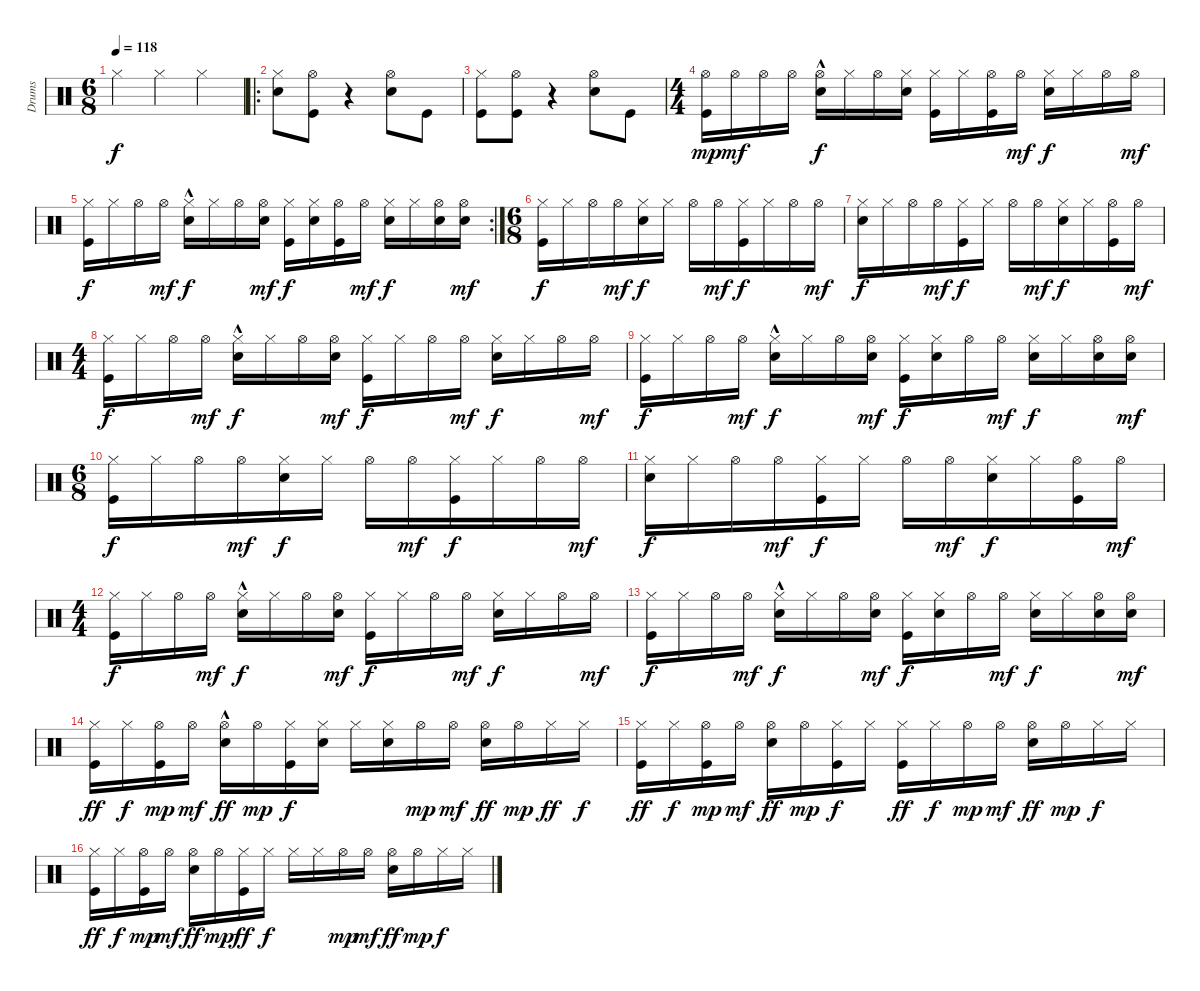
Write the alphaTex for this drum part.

\track ("Drums" "Drums") {instrument percussion}
\staff {score}
\articulation defaults
\ts (6 8)
\tempo 118
\clef neutral
\ks c "Hi-Hat (closed)".4{dy f} "Hi-Hat (closed)".4 "Hi-Hat (closed)".4
|
\ro
("Electric Snare (hit)" "Hi-Hat (closed)").8 ("Hi-Hat (open)" "Kick (hit)").8 r.4 ("Hi-Hat (open)" "Electric Snare (hit)").8 "Kick (hit)".8 |
("Hi-Hat (closed)" "Kick (hit)").8 ("Hi-Hat (open)" "Kick (hit)").8 r.4 ("Electric Snare (hit)" "Hi-Hat (open)").8 "Kick (hit)".8 |
\ts (4 4)
("Kick (hit)" "Hi-Hat (open)").16{dy mp} "Hi-Hat (open)".16{dy mf} "Hi-Hat (open)".16 "Hi-Hat (open)".16 ("Electric Snare (hit)"{hac} "Hi-Hat (open)").16{dy f} "Hi-Hat (closed)".16 "Hi-Hat (open)".16 ("Electric Snare (hit)" "Hi-Hat (closed)").16 ("Hi-Hat (closed)" "Kick (hit)").16 "Hi-Hat (closed)".16 ("Hi-Hat (open)" "Kick (hit)").16 "Hi-Hat (open)".16{dy mf} ("Electric Snare (hit)" "Hi-Hat (closed)").16{dy f} "Hi-Hat (closed)".16 "Hi-Hat (open)".16 "Hi-Hat (open)".16{dy mf} |
\rc 2
("Hi-Hat (closed)" "Kick (hit)").16{dy f} "Hi-Hat (closed)".16 "Hi-Hat (open)".16 "Hi-Hat (open)".16{dy mf} ("Hi-Hat (closed)" "Electric Snare (hit)"{hac}).16{dy f} "Hi-Hat (closed)".16 "Hi-Hat (open)".16 ("Electric Snare (hit)" "Hi-Hat (open)").16{dy mf} ("Hi-Hat (closed)" "Kick (hit)").16{dy f} ("Electric Snare (hit)" "Hi-Hat (closed)").16 ("Hi-Hat (open)" "Kick (hit)").16 "Hi-Hat (open)".16{dy mf} ("Electric Snare (hit)" "Hi-Hat (closed)").16{dy f} "Hi-Hat (closed)".16 ("Hi-Hat (open)" "Electric Snare (hit)").16 ("Hi-Hat (open)" "Electric Snare (hit)").16{dy mf} |
\ts (6 8)
("Hi-Hat (closed)" "Kick (hit)").16{dy f} "Hi-Hat (closed)".16 "Hi-Hat (open)".16 "Hi-Hat (open)".16{dy mf} ("Electric Snare (hit)" "Hi-Hat (closed)").16{dy f} "Hi-Hat (closed)".16 "Hi-Hat (open)".16 "Hi-Hat (open)".16{dy mf} ("Kick (hit)" "Hi-Hat (closed)").16{dy f} "Hi-Hat (closed)".16 "Hi-Hat (open)".16 "Hi-Hat (open)".16{dy mf} |
("Electric Snare (hit)" "Hi-Hat (closed)").16{dy f} "Hi-Hat (closed)".16 "Hi-Hat (open)".16 "Hi-Hat (open)".16{dy mf} ("Kick (hit)" "Hi-Hat (closed)").16{dy f} "Hi-Hat (closed)".16 "Hi-Hat (open)".16 "Hi-Hat (open)".16{dy mf} ("Electric Snare (hit)" "Hi-Hat (closed)").16{dy f} "Hi-Hat (closed)".16 ("Kick (hit)" "Hi-Hat (open)").16 "Hi-Hat (open)".16{dy mf} |
\ts (4 4)
("Kick (hit)" "Hi-Hat (closed)").16{dy f} "Hi-Hat (closed)".16 "Hi-Hat (open)".16 "Hi-Hat (open)".16{dy mf} ("Electric Snare (hit)"{hac} "Hi-Hat (closed)").16{dy f} "Hi-Hat (closed)".16 "Hi-Hat (open)".16 ("Hi-Hat (open)" "Electric Snare (hit)").16{dy mf} ("Hi-Hat (closed)" "Kick (hit)").16{dy f} "Hi-Hat (closed)".16 "Hi-Hat (open)".16 "Hi-Hat (open)".16{dy mf} ("Electric Snare (hit)" "Hi-Hat (closed)").16{dy f} "Hi-Hat (closed)".16 "Hi-Hat (open)".16 "Hi-Hat (open)".16{dy mf} |
("Kick (hit)" "Hi-Hat (closed)").16{dy f} "Hi-Hat (closed)".16 "Hi-Hat (open)".16 "Hi-Hat (open)".16{dy mf} ("Electric Snare (hit)"{hac} "Hi-Hat (closed)").16{dy f} "Hi-Hat (closed)".16 "Hi-Hat (open)".16 ("Hi-Hat (open)" "Electric Snare (hit)").16{dy mf} ("Hi-Hat (closed)" "Kick (hit)").16{dy f} ("Electric Snare (hit)" "Hi-Hat (closed)").16 "Hi-Hat (open)".16 "Hi-Hat (open)".16{dy mf} ("Electric Snare (hit)" "Hi-Hat (closed)").16{dy f} "Hi-Hat (closed)".16 ("Electric Snare (hit)" "Hi-Hat (open)").16 ("Electric Snare (hit)" "Hi-Hat (open)").16{dy mf} |
\ts (6 8)
("Hi-Hat (closed)" "Kick (hit)").16{dy f} "Hi-Hat (closed)".16 "Hi-Hat (open)".16 "Hi-Hat (open)".16{dy mf} ("Electric Snare (hit)" "Hi-Hat (closed)").16{dy f} "Hi-Hat (closed)".16 "Hi-Hat (open)".16 "Hi-Hat (open)".16{dy mf} ("Kick (hit)" "Hi-Hat (closed)").16{dy f} "Hi-Hat (closed)".16 "Hi-Hat (open)".16 "Hi-Hat (open)".16{dy mf} |
("Electric Snare (hit)" "Hi-Hat (closed)").16{dy f} "Hi-Hat (closed)".16 "Hi-Hat (open)".16 "Hi-Hat (open)".16{dy mf} ("Kick (hit)" "Hi-Hat (closed)").16{dy f} "Hi-Hat (closed)".16 "Hi-Hat (open)".16 "Hi-Hat (open)".16{dy mf} ("Electric Snare (hit)" "Hi-Hat (closed)").16{dy f} "Hi-Hat (closed)".16 ("Kick (hit)" "Hi-Hat (open)").16 "Hi-Hat (open)".16{dy mf} |
\ts (4 4)
("Kick (hit)" "Hi-Hat (closed)").16{dy f} "Hi-Hat (closed)".16 "Hi-Hat (open)".16 "Hi-Hat (open)".16{dy mf} ("Electric Snare (hit)"{hac} "Hi-Hat (closed)").16{dy f} "Hi-Hat (closed)".16 "Hi-Hat (open)".16 ("Hi-Hat (open)" "Electric Snare (hit)").16{dy mf} ("Hi-Hat (closed)" "Kick (hit)").16{dy f} "Hi-Hat (closed)".16 "Hi-Hat (open)".16 "Hi-Hat (open)".16{dy mf} ("Electric Snare (hit)" "Hi-Hat (closed)").16{dy f} "Hi-Hat (closed)".16 "Hi-Hat (open)".16 "Hi-Hat (open)".16{dy mf} |
("Kick (hit)" "Hi-Hat (closed)").16{dy f} "Hi-Hat (closed)".16 "Hi-Hat (open)".16 "Hi-Hat (open)".16{dy mf} ("Electric Snare (hit)"{hac} "Hi-Hat (closed)").16{dy f} "Hi-Hat (closed)".16 "Hi-Hat (open)".16 ("Hi-Hat (open)" "Electric Snare (hit)").16{dy mf} ("Hi-Hat (closed)" "Kick (hit)").16{dy f} ("Electric Snare (hit)" "Hi-Hat (closed)").16 "Hi-Hat (open)".16 "Hi-Hat (open)".16{dy mf} ("Electric Snare (hit)" "Hi-Hat (closed)").16{dy f} "Hi-Hat (closed)".16 ("Electric Snare (hit)" "Hi-Hat (open)").16 ("Electric Snare (hit)" "Hi-Hat (open)").16{dy mf} |
("Kick (hit)" "Hi-Hat (closed)").16{dy ff} "Hi-Hat (closed)".16{dy f} ("Kick (hit)" "Hi-Hat (open)").16{dy mp} "Hi-Hat (open)".16{dy mf} ("Electric Snare (hit)"{hac} "Hi-Hat (open)").16{dy ff} "Hi-Hat (open)".16{dy mp} ("Kick (hit)" "Hi-Hat (closed)").16{dy f} ("Electric Snare (hit)" "Hi-Hat (closed)").16 "Hi-Hat (closed)".16 ("Electric Snare (hit)" "Hi-Hat (closed)").16 "Hi-Hat (open)".16{dy mp} "Hi-Hat (open)".16{dy mf} ("Hi-Hat (open)" "Electric Snare (hit)").16{dy ff} "Hi-Hat (open)".16{dy mp} "Hi-Hat (closed)".16{dy ff} "Hi-Hat (closed)".16{dy f} |
("Kick (hit)" "Hi-Hat (closed)").16{dy ff} "Hi-Hat (closed)".16{dy f} ("Kick (hit)" "Hi-Hat (open)").16{dy mp} "Hi-Hat (open)".16{dy mf} ("Electric Snare (hit)" "Hi-Hat (open)").16{dy ff} "Hi-Hat (open)".16{dy mp} ("Kick (hit)" "Hi-Hat (closed)").16{dy f} "Hi-Hat (closed)".16 ("Kick (hit)" "Hi-Hat (closed)").16{dy ff} "Hi-Hat (closed)".16{dy f} "Hi-Hat (open)".16{dy mp} "Hi-Hat (open)".16{dy mf} ("Electric Snare (hit)" "Hi-Hat (open)").16{dy ff} "Hi-Hat (open)".16{dy mp} "Hi-Hat (closed)".16{dy f} "Hi-Hat (closed)".16 |
("Kick (hit)" "Hi-Hat (closed)").16{dy ff} "Hi-Hat (closed)".16{dy f} ("Kick (hit)" "Hi-Hat (open)").16{dy mp} "Hi-Hat (open)".16{dy mf} ("Electric Snare (hit)" "Hi-Hat (open)").16{dy ff} "Hi-Hat (open)".16{dy mp} ("Kick (hit)" "Hi-Hat (closed)").16{dy ff} "Hi-Hat (closed)".16{dy f} "Hi-Hat (closed)".16 "Hi-Hat (closed)".16 "Hi-Hat (open)".16{dy mp} "Hi-Hat (open)".16{dy mf} ("Electric Snare (hit)" "Hi-Hat (open)").16{dy ff} "Hi-Hat (open)".16{dy mp} "Hi-Hat (closed)".16{dy f} "Hi-Hat (closed)".16
